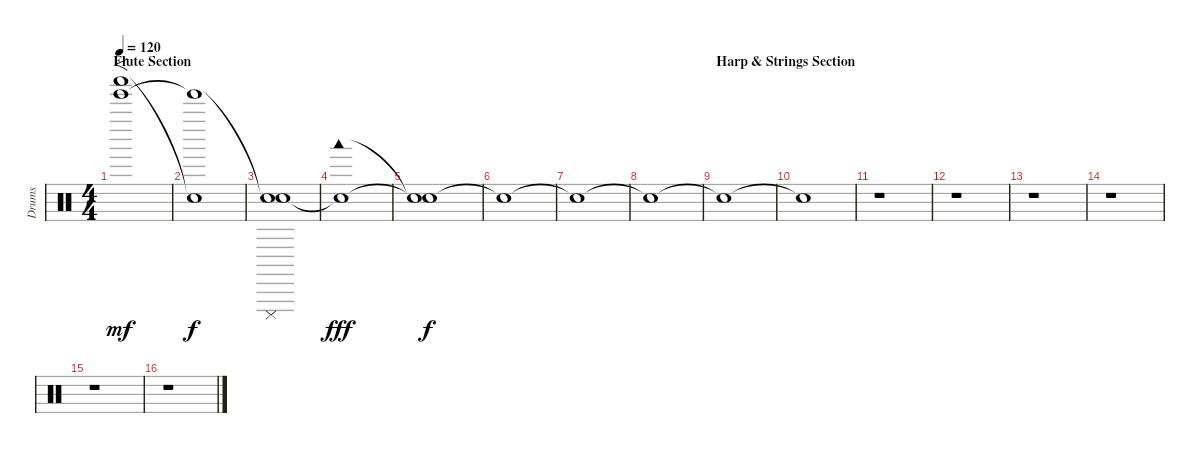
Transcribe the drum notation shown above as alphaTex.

\track ("Drums" "Drums") {instrument percussion}
\staff {score}
\articulation defaults
\ts (4 4)
\section ("" "Flute Section")
\tempo 120
\clef neutral
\ks c
("Tinkle Bell (hit)" "Shaker (hit)").1{f dy mf volume 8} |
("Tinkle Bell (hit)"{t} "Snare (hit)"{t}).1{dy f} |
("Snare (hit)"{t} "Cuica (mute)" "Snare (hit)").1 |
("Snare (hit)"{t} "Woodblock low (hit)").1{dy fff} |
("Snare (hit)"{t} "Snare (hit)"{t}).1{dy f} |
"Snare (hit)"{t}.1 |
"Snare (hit)"{t}.1{volume 0} |
"Snare (hit)"{t}.1 |
\section ("" "Harp & Strings Section")
"Snare (hit)"{t}.1 |
"Snare (hit)"{t}.1 |
r.1 |
r.1 |
r.1 |
r.1 |
r.1 |
r.1
